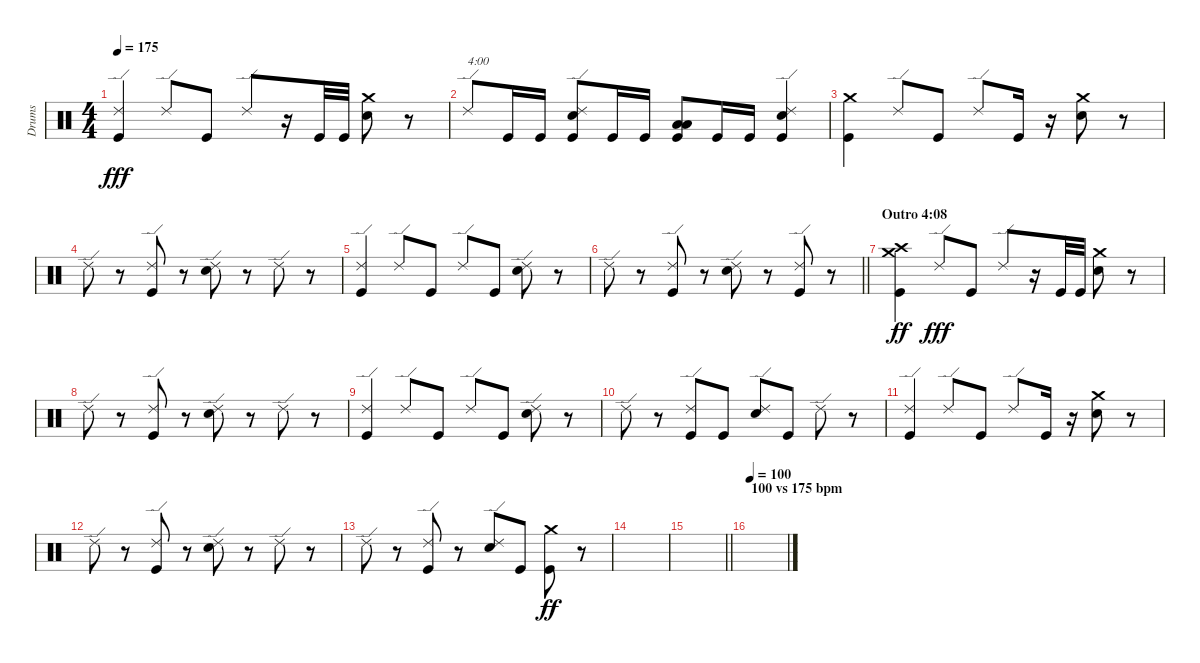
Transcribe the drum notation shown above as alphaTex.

\track ("Drums" "Drums") {instrument percussion}
\staff {score}
\articulation defaults
\ts (4 4)
\tempo 175
\clef neutral
\ks c
("Kick (hit)" "Ride (edge) 2").4{dy fff} "Ride (edge) 2".8 "Kick (hit)".8 "Ride (edge) 2".8 r.16 "Kick (hit)".32 "Kick (hit)".32 ("Electric Snare (hit)" "Crash medium (hit)").8 r.8 |
"Ride (edge) 2".8{txt "4:00"} "Kick (hit)".16 "Kick (hit)".16 ("Kick (hit)" "Electric Snare (hit)" "Ride (edge) 2").8 "Kick (hit)".16 "Kick (hit)".16 ("Kick (hit)" "Low Tom (hit)" "Low Floor Tom (hit)").8 "Kick (hit)".16 "Kick (hit)".16 ("Kick (hit)" "Electric Snare (hit)" "Ride (edge) 2").4 |
("Kick (hit)" "Crash medium (hit)").4 "Ride (edge) 2".8 "Kick (hit)".8 "Ride (edge) 2".8 "Kick (hit)".16 r.16 ("Electric Snare (hit)" "Crash medium (hit)").8 r.8 |
"Ride (edge) 2".8 r.8 ("Kick (hit)" "Ride (edge) 2").8 r.8 ("Electric Snare (hit)" "Ride (edge) 2").8 r.8 "Ride (edge) 2".8 r.8 |
("Kick (hit)" "Ride (edge) 2").4 "Ride (edge) 2".8 "Kick (hit)".8 "Ride (edge) 2".8 "Kick (hit)".8 ("Electric Snare (hit)" "Ride (edge) 2").8 r.8 |
\barLineRight lightlight "Ride (edge) 2".8
r.8 ("Kick (hit)" "Ride (edge) 2").8 r.8 ("Electric Snare (hit)" "Ride (edge) 2").8 r.8 ("Kick (hit)" "Ride (edge) 2").8 r.8 |
\section ("" "Outro 4:08")
("Kick (hit)" "Crash high (hit)" "Crash medium (hit)").4{dy ff} "Ride (edge) 2".8{dy fff} "Kick (hit)".8 "Ride (edge) 2".8 r.16 "Kick (hit)".32 "Kick (hit)".32 ("Electric Snare (hit)" "Crash medium (hit)").8 r.8 |
"Ride (edge) 2".8 r.8 ("Kick (hit)" "Ride (edge) 2").8 r.8 ("Electric Snare (hit)" "Ride (edge) 2").8 r.8 "Ride (edge) 2".8 r.8 |
("Kick (hit)" "Ride (edge) 2").4 "Ride (edge) 2".8 "Kick (hit)".8 "Ride (edge) 2".8 "Kick (hit)".8 ("Electric Snare (hit)" "Ride (edge) 2").8 r.8 |
"Ride (edge) 2".8 r.8 ("Kick (hit)" "Ride (edge) 2").8 "Kick (hit)".8 ("Electric Snare (hit)" "Ride (edge) 2").8 "Kick (hit)".8 "Ride (edge) 2".8 r.8 |
("Kick (hit)" "Ride (edge) 2").4 "Ride (edge) 2".8 "Kick (hit)".8 "Ride (edge) 2".8 "Kick (hit)".16 r.16 ("Electric Snare (hit)" "Crash medium (hit)").8 r.8 |
"Ride (edge) 2".8 r.8 ("Kick (hit)" "Ride (edge) 2").8 r.8 ("Electric Snare (hit)" "Ride (edge) 2").8 r.8 "Ride (edge) 2".8 r.8 |
"Ride (edge) 2".8 r.8 ("Kick (hit)" "Ride (edge) 2").8 r.8 ("Electric Snare (hit)" "Ride (edge) 2").8 "Kick (hit)".8 ("Kick (hit)" "Crash medium (hit)").8{dy ff} r.8 |
|
\barLineRight lightlight
|
\section ("" "100 vs 175 bpm")
\tempo 100
